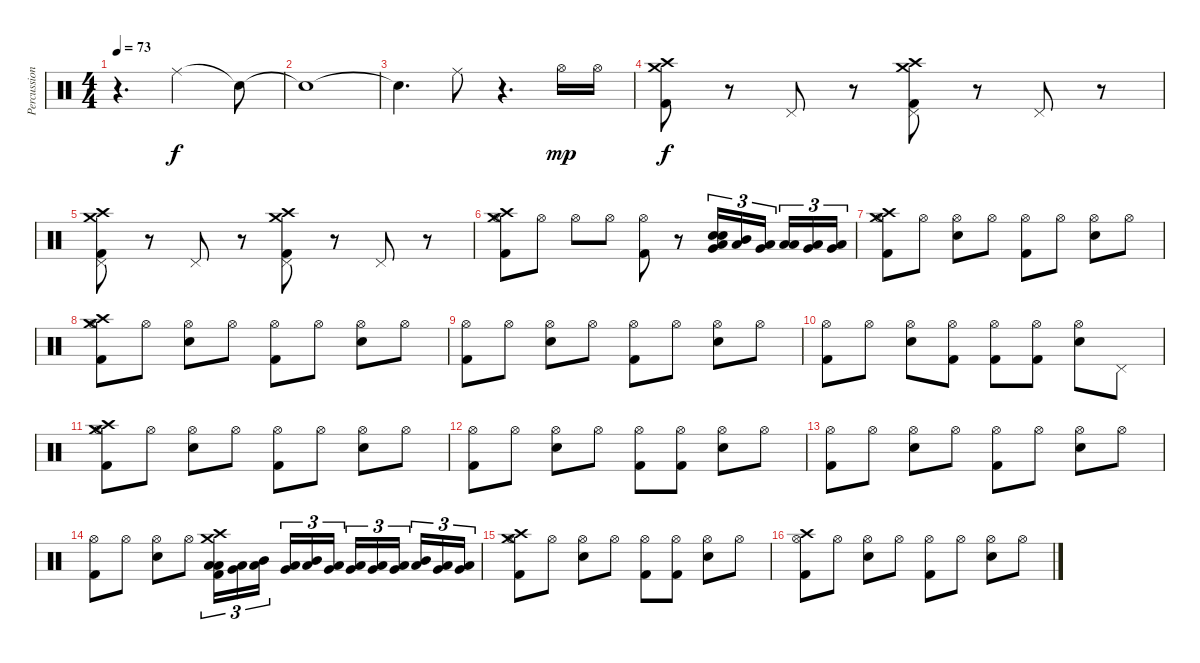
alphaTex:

\track ("Percussions" "Percussion") {instrument percussion}
\staff {score}
\articulation defaults
\ts (4 4)
\tempo 73
\clef neutral
\ks c
r.4{d dy f} "Ride (middle)".2 "Snare (hit)"{t}.8 |
"Snare (hit)"{t}.1 |
"Snare (hit)"{t}.4{d} "Ride (middle)".8 r.4{d} "Hi-Hat (open)".16{dy mp} "Hi-Hat (open)".16 |
("Crash medium (hit)" "Crash high (hit)" "Kick (hit) 2").8{dy f} r.8 "Pedal Hi-Hat (hit)".8 r.8 ("Crash medium (hit)" "Crash high (hit)" "Pedal Hi-Hat (hit)" "Kick (hit) 2").8 r.8 "Pedal Hi-Hat (hit)".8 r.8 |
("Crash medium (hit)" "Crash high (hit)" "Pedal Hi-Hat (hit)" "Kick (hit) 2").8 r.8 "Pedal Hi-Hat (hit)".8 r.8 ("Crash medium (hit)" "Crash high (hit)" "Pedal Hi-Hat (hit)" "Kick (hit) 2").8 r.8 "Pedal Hi-Hat (hit)".8 r.8 |
("Crash medium (hit)" "Crash high (hit)" "Hi-Hat (open)" "Kick (hit) 2").8 "Hi-Hat (open)".8 "Hi-Hat (open)".8 "Hi-Hat (open)".8 ("Hi-Hat (open)" "Kick (hit) 2").8 r.8 ("Electric Snare (hit)" "Electric Snare (hit)" "Very Low Tom (hit)" "Low Floor Tom (hit)").16{tu (3 2)} ("Mid Tom (hit)" "Low Tom (hit)").16{tu (3 2)} ("Low Tom (hit)" "Very Low Tom (hit)").16{tu (3 2) beam splitsecondary} ("Low Tom (hit)" "Low Floor Tom (hit)").16{tu (3 2)} ("Low Tom (hit)" "Very Low Tom (hit)").16{tu (3 2)} ("Very Low Tom (hit)" "Low Floor Tom (hit)").16{tu (3 2)} |
("Crash medium (hit)" "Crash high (hit)" "Hi-Hat (open)" "Kick (hit) 2").8 "Hi-Hat (open)".8 ("Hi-Hat (open)" "Electric Snare (hit)").8 "Hi-Hat (open)".8 ("Hi-Hat (open)" "Kick (hit) 2").8 "Hi-Hat (open)".8 ("Hi-Hat (open)" "Electric Snare (hit)").8 "Hi-Hat (open)".8 |
("Crash medium (hit)" "Crash high (hit)" "Hi-Hat (open)" "Kick (hit) 2").8 "Hi-Hat (open)".8 ("Hi-Hat (open)" "Electric Snare (hit)").8 "Hi-Hat (open)".8 ("Hi-Hat (open)" "Kick (hit) 2").8 "Hi-Hat (open)".8 ("Hi-Hat (open)" "Electric Snare (hit)").8 "Hi-Hat (open)".8 |
("Hi-Hat (open)" "Kick (hit) 2").8 "Hi-Hat (open)".8 ("Hi-Hat (open)" "Electric Snare (hit)").8 "Hi-Hat (open)".8 ("Hi-Hat (open)" "Kick (hit) 2").8 "Hi-Hat (open)".8 ("Hi-Hat (open)" "Electric Snare (hit)").8 "Hi-Hat (open)".8 |
("Hi-Hat (open)" "Kick (hit) 2").8 "Hi-Hat (open)".8 ("Hi-Hat (open)" "Electric Snare (hit)").8 ("Hi-Hat (open)" "Kick (hit) 2").8 ("Hi-Hat (open)" "Kick (hit) 2").8 ("Hi-Hat (open)" "Kick (hit) 2").8 ("Hi-Hat (open)" "Electric Snare (hit)").8 "Pedal Hi-Hat (hit)".8 |
("Crash medium (hit)" "Crash high (hit)" "Hi-Hat (open)" "Kick (hit) 2").8 "Hi-Hat (open)".8 ("Hi-Hat (open)" "Electric Snare (hit)").8 "Hi-Hat (open)".8 ("Hi-Hat (open)" "Kick (hit) 2").8 "Hi-Hat (open)".8 ("Hi-Hat (open)" "Electric Snare (hit)").8 "Hi-Hat (open)".8 |
("Hi-Hat (open)" "Kick (hit) 2").8 "Hi-Hat (open)".8 ("Hi-Hat (open)" "Electric Snare (hit)").8 "Hi-Hat (open)".8 ("Hi-Hat (open)" "Kick (hit) 2").8 ("Hi-Hat (open)" "Kick (hit) 2").8 ("Hi-Hat (open)" "Electric Snare (hit)").8 "Hi-Hat (open)".8 |
("Hi-Hat (open)" "Kick (hit) 2").8 "Hi-Hat (open)".8 ("Hi-Hat (open)" "Electric Snare (hit)").8 "Hi-Hat (open)".8 ("Hi-Hat (open)" "Kick (hit) 2").8 "Hi-Hat (open)".8 ("Hi-Hat (open)" "Electric Snare (hit)").8 "Hi-Hat (open)".8 |
("Hi-Hat (open)" "Kick (hit) 2").8 "Hi-Hat (open)".8 ("Hi-Hat (open)" "Electric Snare (hit)").8 "Hi-Hat (open)".8 ("Crash medium (hit)" "Crash high (hit)" "Low Tom (hit)" "Low Floor Tom (hit)" "Kick (hit) 2").16{tu (3 2)} ("Low Tom (hit)" "Very Low Tom (hit)").16{tu (3 2)} ("Mid Tom (hit)" "Low Tom (hit)").16{tu (3 2) beam splitsecondary} ("Low Tom (hit)" "Very Low Tom (hit)").16{tu (3 2)} ("Mid Tom (hit)" "Low Tom (hit)").16{tu (3 2)} ("Low Tom (hit)" "Very Low Tom (hit)").16{tu (3 2)} ("Low Tom (hit)" "Very Low Tom (hit)").16{tu (3 2)} ("Very Low Tom (hit)" "Low Floor Tom (hit)").16{tu (3 2)} ("Low Tom (hit)" "Very Low Tom (hit)").16{tu (3 2) beam splitsecondary} ("Mid Tom (hit)" "Low Tom (hit)").16{tu (3 2)} ("Low Tom (hit)" "Very Low Tom (hit)").16{tu (3 2)} ("Very Low Tom (hit)" "Low Floor Tom (hit)").16{tu (3 2)} |
("Crash medium (hit)" "Crash high (hit)" "Hi-Hat (open)" "Kick (hit) 2").8 "Hi-Hat (open)".8 ("Hi-Hat (open)" "Electric Snare (hit)").8 "Hi-Hat (open)".8 ("Hi-Hat (open)" "Kick (hit) 2").8 ("Hi-Hat (open)" "Kick (hit) 2").8 ("Hi-Hat (open)" "Electric Snare (hit)").8 "Hi-Hat (open)".8 |
("Hi-Hat (open)" "Kick (hit) 2" "Crash high (hit)").8 "Hi-Hat (open)".8 ("Hi-Hat (open)" "Electric Snare (hit)").8 "Hi-Hat (open)".8 ("Hi-Hat (open)" "Kick (hit) 2").8 "Hi-Hat (open)".8 ("Hi-Hat (open)" "Electric Snare (hit)").8 "Hi-Hat (open)".8
